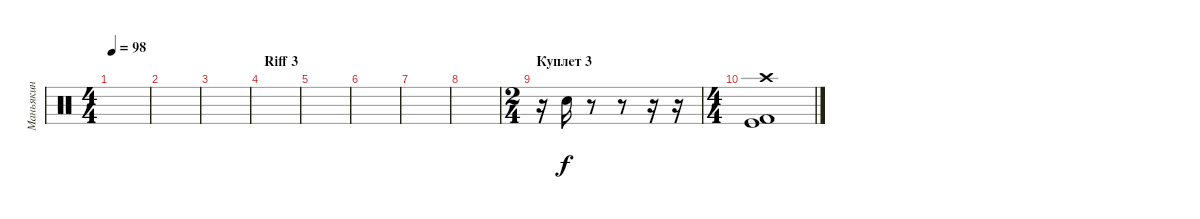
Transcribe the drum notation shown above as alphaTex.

\track ("Маньякин" "Маньякин") {instrument percussion}
\staff {score}
\articulation defaults
\ts (4 4)
\tempo 98
\clef neutral
\ks c
|
|
|
\section ("" "Riff 3")
|
|
|
|
|
\ts (2 4)
\section ("" "Куплет 3")
r.16 "Snare (hit) 2".16 r.8 r.8 r.16 r.16 |
\ts (4 4)
("Crash high (hit)" "Kick (hit)" "Kick (hit) 2").1
